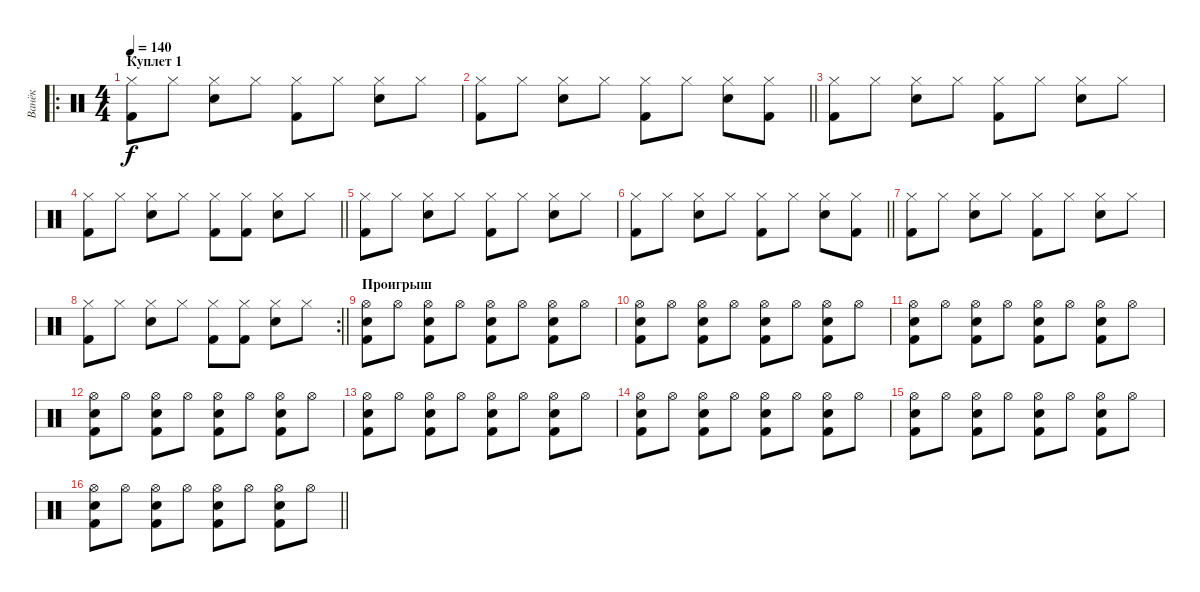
\track ("Ванёк" "Ванёк") {instrument percussion}
\staff {score}
\articulation defaults
\ro
\ts (4 4)
\section ("" "Куплет 1")
\tempo 140
\clef neutral
\ks c
("Hi-Hat (closed)" "Kick (hit) 2").8{dy f} "Hi-Hat (closed)".8 ("Hi-Hat (closed)" "Electric Snare (hit)").8 "Hi-Hat (closed)".8 ("Hi-Hat (closed)" "Kick (hit) 2").8 "Hi-Hat (closed)".8 ("Hi-Hat (closed)" "Electric Snare (hit)").8 "Hi-Hat (closed)".8 |
\barLineRight lightlight
("Hi-Hat (closed)" "Kick (hit) 2").8 "Hi-Hat (closed)".8 ("Hi-Hat (closed)" "Electric Snare (hit)").8 "Hi-Hat (closed)".8 ("Hi-Hat (closed)" "Kick (hit) 2").8 "Hi-Hat (closed)".8 ("Hi-Hat (closed)" "Electric Snare (hit)").8 ("Hi-Hat (closed)" "Kick (hit) 2").8 |
("Hi-Hat (closed)" "Kick (hit) 2").8 "Hi-Hat (closed)".8 ("Hi-Hat (closed)" "Electric Snare (hit)").8 "Hi-Hat (closed)".8 ("Hi-Hat (closed)" "Kick (hit) 2").8 "Hi-Hat (closed)".8 ("Hi-Hat (closed)" "Electric Snare (hit)").8 "Hi-Hat (closed)".8 |
\barLineRight lightlight
("Hi-Hat (closed)" "Kick (hit) 2").8 "Hi-Hat (closed)".8 ("Hi-Hat (closed)" "Electric Snare (hit)").8 "Hi-Hat (closed)".8 ("Hi-Hat (closed)" "Kick (hit) 2").8 ("Hi-Hat (closed)" "Kick (hit) 2").8 ("Hi-Hat (closed)" "Electric Snare (hit)").8 "Hi-Hat (closed)".8 |
("Hi-Hat (closed)" "Kick (hit) 2").8 "Hi-Hat (closed)".8 ("Hi-Hat (closed)" "Electric Snare (hit)").8 "Hi-Hat (closed)".8 ("Hi-Hat (closed)" "Kick (hit) 2").8 "Hi-Hat (closed)".8 ("Hi-Hat (closed)" "Electric Snare (hit)").8 "Hi-Hat (closed)".8 |
\barLineRight lightlight
("Hi-Hat (closed)" "Kick (hit) 2").8 "Hi-Hat (closed)".8 ("Hi-Hat (closed)" "Electric Snare (hit)").8 "Hi-Hat (closed)".8 ("Hi-Hat (closed)" "Kick (hit) 2").8 "Hi-Hat (closed)".8 ("Hi-Hat (closed)" "Electric Snare (hit)").8 ("Hi-Hat (closed)" "Kick (hit) 2").8 |
("Hi-Hat (closed)" "Kick (hit) 2").8 "Hi-Hat (closed)".8 ("Hi-Hat (closed)" "Electric Snare (hit)").8 "Hi-Hat (closed)".8 ("Hi-Hat (closed)" "Kick (hit) 2").8 "Hi-Hat (closed)".8 ("Hi-Hat (closed)" "Electric Snare (hit)").8 "Hi-Hat (closed)".8 |
\rc 2
\barLineRight lightlight
("Hi-Hat (closed)" "Kick (hit) 2").8 "Hi-Hat (closed)".8 ("Hi-Hat (closed)" "Electric Snare (hit)").8 "Hi-Hat (closed)".8 ("Hi-Hat (closed)" "Kick (hit) 2").8 ("Hi-Hat (closed)" "Kick (hit) 2").8 ("Hi-Hat (closed)" "Electric Snare (hit)").8 "Hi-Hat (closed)".8 |
\section ("" "Проигрыш")
("Hi-Hat (open)" "Electric Snare (hit)" "Kick (hit) 2").8 "Hi-Hat (open)".8 ("Hi-Hat (open)" "Electric Snare (hit)" "Kick (hit) 2").8 "Hi-Hat (open)".8 ("Hi-Hat (open)" "Electric Snare (hit)" "Kick (hit) 2").8 "Hi-Hat (open)".8 ("Hi-Hat (open)" "Electric Snare (hit)" "Kick (hit) 2").8 "Hi-Hat (open)".8 |
("Hi-Hat (open)" "Electric Snare (hit)" "Kick (hit) 2").8 "Hi-Hat (open)".8 ("Hi-Hat (open)" "Electric Snare (hit)" "Kick (hit) 2").8 "Hi-Hat (open)".8 ("Hi-Hat (open)" "Electric Snare (hit)" "Kick (hit) 2").8 "Hi-Hat (open)".8 ("Hi-Hat (open)" "Electric Snare (hit)" "Kick (hit) 2").8 "Hi-Hat (open)".8 |
("Hi-Hat (open)" "Electric Snare (hit)" "Kick (hit) 2").8 "Hi-Hat (open)".8 ("Hi-Hat (open)" "Electric Snare (hit)" "Kick (hit) 2").8 "Hi-Hat (open)".8 ("Hi-Hat (open)" "Electric Snare (hit)" "Kick (hit) 2").8 "Hi-Hat (open)".8 ("Hi-Hat (open)" "Electric Snare (hit)" "Kick (hit) 2").8 "Hi-Hat (open)".8 |
("Hi-Hat (open)" "Electric Snare (hit)" "Kick (hit) 2").8 "Hi-Hat (open)".8 ("Hi-Hat (open)" "Electric Snare (hit)" "Kick (hit) 2").8 "Hi-Hat (open)".8 ("Hi-Hat (open)" "Electric Snare (hit)" "Kick (hit) 2").8 "Hi-Hat (open)".8 ("Hi-Hat (open)" "Electric Snare (hit)" "Kick (hit) 2").8 "Hi-Hat (open)".8 |
("Hi-Hat (open)" "Electric Snare (hit)" "Kick (hit) 2").8 "Hi-Hat (open)".8 ("Hi-Hat (open)" "Electric Snare (hit)" "Kick (hit) 2").8 "Hi-Hat (open)".8 ("Hi-Hat (open)" "Electric Snare (hit)" "Kick (hit) 2").8 "Hi-Hat (open)".8 ("Hi-Hat (open)" "Electric Snare (hit)" "Kick (hit) 2").8 "Hi-Hat (open)".8 |
("Hi-Hat (open)" "Electric Snare (hit)" "Kick (hit) 2").8 "Hi-Hat (open)".8 ("Hi-Hat (open)" "Electric Snare (hit)" "Kick (hit) 2").8 "Hi-Hat (open)".8 ("Hi-Hat (open)" "Electric Snare (hit)" "Kick (hit) 2").8 "Hi-Hat (open)".8 ("Hi-Hat (open)" "Electric Snare (hit)" "Kick (hit) 2").8 "Hi-Hat (open)".8 |
("Hi-Hat (open)" "Electric Snare (hit)" "Kick (hit) 2").8 "Hi-Hat (open)".8 ("Hi-Hat (open)" "Electric Snare (hit)" "Kick (hit) 2").8 "Hi-Hat (open)".8 ("Hi-Hat (open)" "Electric Snare (hit)" "Kick (hit) 2").8 "Hi-Hat (open)".8 ("Hi-Hat (open)" "Electric Snare (hit)" "Kick (hit) 2").8 "Hi-Hat (open)".8 |
\barLineRight lightlight
("Hi-Hat (open)" "Electric Snare (hit)" "Kick (hit) 2").8 "Hi-Hat (open)".8 ("Hi-Hat (open)" "Electric Snare (hit)" "Kick (hit) 2").8 "Hi-Hat (open)".8 ("Hi-Hat (open)" "Electric Snare (hit)" "Kick (hit) 2").8 "Hi-Hat (open)".8 ("Hi-Hat (open)" "Electric Snare (hit)" "Kick (hit) 2").8 "Hi-Hat (open)".8
